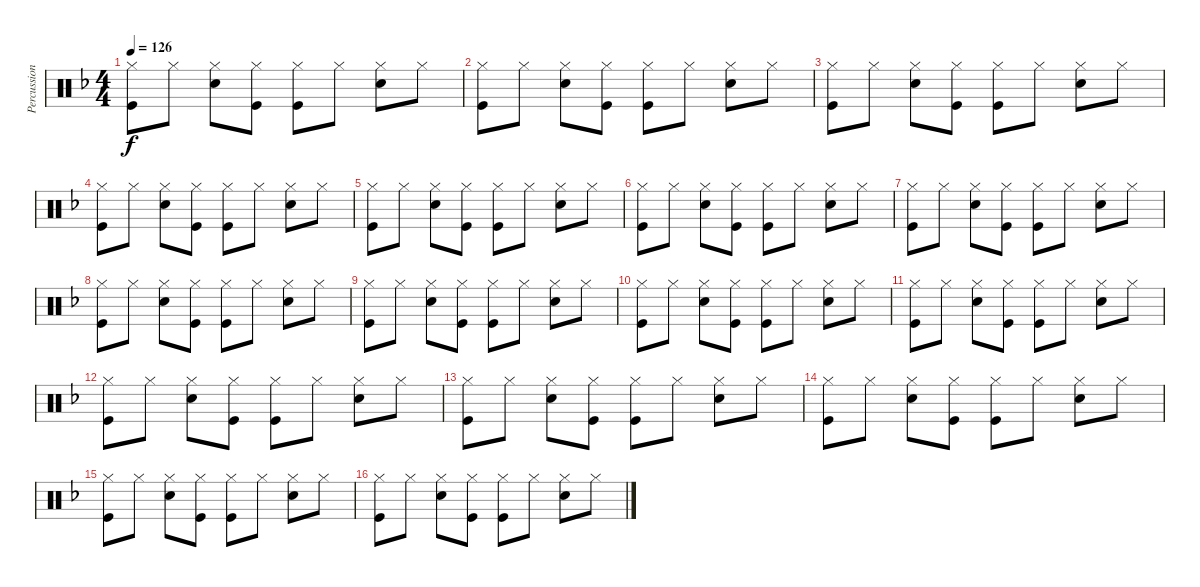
\track ("Percussion" "Percussion") {instrument percussion}
\staff {score}
\articulation defaults
\ts (4 4)
\tempo 126
\clef neutral
\ks dminor
("Kick (hit)" "Hi-Hat (closed)").8{dy f} "Hi-Hat (closed)".8 ("Hi-Hat (closed)" "Snare (hit) 2").8 ("Hi-Hat (closed)" "Kick (hit)").8 ("Hi-Hat (closed)" "Kick (hit)").8 "Hi-Hat (closed)".8 ("Hi-Hat (closed)" "Snare (hit) 2").8 "Hi-Hat (closed)".8 |
("Kick (hit)" "Hi-Hat (closed)").8 "Hi-Hat (closed)".8 ("Hi-Hat (closed)" "Snare (hit) 2").8 ("Hi-Hat (closed)" "Kick (hit)").8 ("Hi-Hat (closed)" "Kick (hit)").8 "Hi-Hat (closed)".8 ("Hi-Hat (closed)" "Snare (hit) 2").8 "Hi-Hat (closed)".8 |
("Kick (hit)" "Hi-Hat (closed)").8 "Hi-Hat (closed)".8 ("Hi-Hat (closed)" "Snare (hit) 2").8 ("Hi-Hat (closed)" "Kick (hit)").8 ("Hi-Hat (closed)" "Kick (hit)").8 "Hi-Hat (closed)".8 ("Hi-Hat (closed)" "Snare (hit) 2").8 "Hi-Hat (closed)".8 |
("Kick (hit)" "Hi-Hat (closed)").8 "Hi-Hat (closed)".8 ("Hi-Hat (closed)" "Snare (hit) 2").8 ("Hi-Hat (closed)" "Kick (hit)").8 ("Hi-Hat (closed)" "Kick (hit)").8 "Hi-Hat (closed)".8 ("Hi-Hat (closed)" "Snare (hit) 2").8 "Hi-Hat (closed)".8 |
("Kick (hit)" "Hi-Hat (closed)").8 "Hi-Hat (closed)".8 ("Hi-Hat (closed)" "Snare (hit) 2").8 ("Hi-Hat (closed)" "Kick (hit)").8 ("Hi-Hat (closed)" "Kick (hit)").8 "Hi-Hat (closed)".8 ("Hi-Hat (closed)" "Snare (hit) 2").8 "Hi-Hat (closed)".8 |
("Kick (hit)" "Hi-Hat (closed)").8 "Hi-Hat (closed)".8 ("Hi-Hat (closed)" "Snare (hit) 2").8 ("Hi-Hat (closed)" "Kick (hit)").8 ("Hi-Hat (closed)" "Kick (hit)").8 "Hi-Hat (closed)".8 ("Hi-Hat (closed)" "Snare (hit) 2").8 "Hi-Hat (closed)".8 |
("Kick (hit)" "Hi-Hat (closed)").8 "Hi-Hat (closed)".8 ("Hi-Hat (closed)" "Snare (hit) 2").8 ("Hi-Hat (closed)" "Kick (hit)").8 ("Hi-Hat (closed)" "Kick (hit)").8 "Hi-Hat (closed)".8 ("Hi-Hat (closed)" "Snare (hit) 2").8 "Hi-Hat (closed)".8 |
("Kick (hit)" "Hi-Hat (closed)").8 "Hi-Hat (closed)".8 ("Hi-Hat (closed)" "Snare (hit) 2").8 ("Hi-Hat (closed)" "Kick (hit)").8 ("Hi-Hat (closed)" "Kick (hit)").8 "Hi-Hat (closed)".8 ("Hi-Hat (closed)" "Snare (hit) 2").8 "Hi-Hat (closed)".8 |
("Kick (hit)" "Hi-Hat (closed)").8 "Hi-Hat (closed)".8 ("Hi-Hat (closed)" "Snare (hit) 2").8 ("Hi-Hat (closed)" "Kick (hit)").8 ("Hi-Hat (closed)" "Kick (hit)").8 "Hi-Hat (closed)".8 ("Hi-Hat (closed)" "Snare (hit) 2").8 "Hi-Hat (closed)".8 |
("Kick (hit)" "Hi-Hat (closed)").8 "Hi-Hat (closed)".8 ("Hi-Hat (closed)" "Snare (hit) 2").8 ("Hi-Hat (closed)" "Kick (hit)").8 ("Hi-Hat (closed)" "Kick (hit)").8 "Hi-Hat (closed)".8 ("Hi-Hat (closed)" "Snare (hit) 2").8 "Hi-Hat (closed)".8 |
("Kick (hit)" "Hi-Hat (closed)").8 "Hi-Hat (closed)".8 ("Hi-Hat (closed)" "Snare (hit) 2").8 ("Hi-Hat (closed)" "Kick (hit)").8 ("Hi-Hat (closed)" "Kick (hit)").8 "Hi-Hat (closed)".8 ("Hi-Hat (closed)" "Snare (hit) 2").8 "Hi-Hat (closed)".8 |
("Kick (hit)" "Hi-Hat (closed)").8 "Hi-Hat (closed)".8 ("Hi-Hat (closed)" "Snare (hit) 2").8 ("Hi-Hat (closed)" "Kick (hit)").8 ("Hi-Hat (closed)" "Kick (hit)").8 "Hi-Hat (closed)".8 ("Hi-Hat (closed)" "Snare (hit) 2").8 "Hi-Hat (closed)".8 |
("Kick (hit)" "Hi-Hat (closed)").8 "Hi-Hat (closed)".8 ("Hi-Hat (closed)" "Snare (hit) 2").8 ("Hi-Hat (closed)" "Kick (hit)").8 ("Hi-Hat (closed)" "Kick (hit)").8 "Hi-Hat (closed)".8 ("Hi-Hat (closed)" "Snare (hit) 2").8 "Hi-Hat (closed)".8 |
("Kick (hit)" "Hi-Hat (closed)").8 "Hi-Hat (closed)".8 ("Hi-Hat (closed)" "Snare (hit) 2").8 ("Hi-Hat (closed)" "Kick (hit)").8 ("Hi-Hat (closed)" "Kick (hit)").8 "Hi-Hat (closed)".8 ("Hi-Hat (closed)" "Snare (hit) 2").8 "Hi-Hat (closed)".8 |
("Kick (hit)" "Hi-Hat (closed)").8 "Hi-Hat (closed)".8 ("Hi-Hat (closed)" "Snare (hit) 2").8 ("Hi-Hat (closed)" "Kick (hit)").8 ("Hi-Hat (closed)" "Kick (hit)").8 "Hi-Hat (closed)".8 ("Hi-Hat (closed)" "Snare (hit) 2").8 "Hi-Hat (closed)".8 |
("Kick (hit)" "Hi-Hat (closed)").8 "Hi-Hat (closed)".8 ("Hi-Hat (closed)" "Snare (hit) 2").8 ("Hi-Hat (closed)" "Kick (hit)").8 ("Hi-Hat (closed)" "Kick (hit)").8 "Hi-Hat (closed)".8 ("Hi-Hat (closed)" "Snare (hit) 2").8 "Hi-Hat (closed)".8
